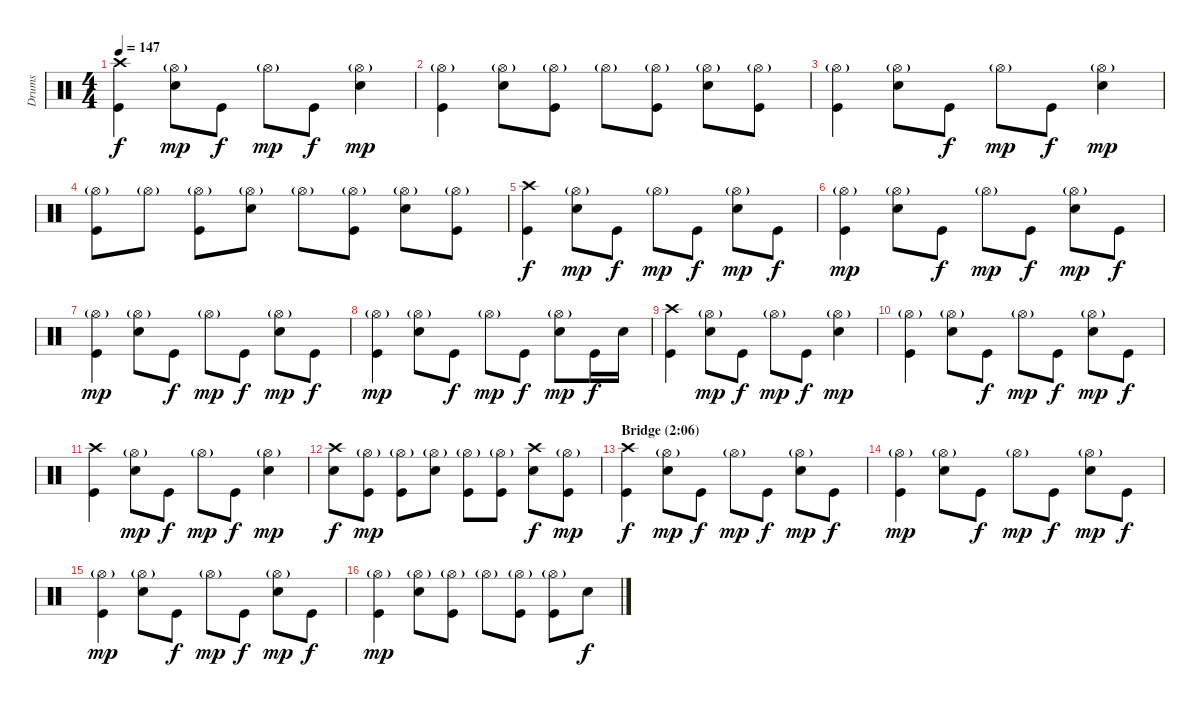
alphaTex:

\track ("Drums" "Drums") {instrument percussion}
\staff {score}
\articulation defaults
\ts (4 4)
\tempo 147
\clef neutral
\ks c
("Crash high (hit)" "Kick (hit)").4{dy f} ("Hi-Hat (open)"{g} "Snare (hit) 2").8{dy mp} "Kick (hit)".8{dy f} "Hi-Hat (open)"{g}.8{dy mp} "Kick (hit)".8{dy f} ("Hi-Hat (open)"{g} "Snare (hit) 2").4{dy mp} |
("Hi-Hat (open)"{g} "Kick (hit)").4 ("Hi-Hat (open)"{g} "Snare (hit) 2").8 ("Hi-Hat (open)"{g} "Kick (hit)").8 "Hi-Hat (open)"{g}.8 ("Hi-Hat (open)"{g} "Kick (hit)").8 ("Hi-Hat (open)"{g} "Snare (hit) 2").8 ("Hi-Hat (open)"{g} "Kick (hit)").8 |
("Hi-Hat (open)"{g} "Kick (hit)").4 ("Hi-Hat (open)"{g} "Snare (hit) 2").8 "Kick (hit)".8{dy f} "Hi-Hat (open)"{g}.8{dy mp} "Kick (hit)".8{dy f} ("Hi-Hat (open)"{g} "Snare (hit) 2").4{dy mp} |
("Hi-Hat (open)"{g} "Kick (hit)").8 "Hi-Hat (open)"{g}.8 ("Hi-Hat (open)"{g} "Kick (hit)").8 ("Hi-Hat (open)"{g} "Snare (hit) 2").8 "Hi-Hat (open)"{g}.8 ("Hi-Hat (open)"{g} "Kick (hit)").8 ("Hi-Hat (open)"{g} "Snare (hit) 2").8 ("Hi-Hat (open)"{g} "Kick (hit)").8 |
("Crash high (hit)" "Kick (hit)").4{dy f} ("Hi-Hat (open)"{g} "Snare (hit) 2").8{dy mp} "Kick (hit)".8{dy f} "Hi-Hat (open)"{g}.8{dy mp} "Kick (hit)".8{dy f} ("Hi-Hat (open)"{g} "Snare (hit) 2").8{dy mp} "Kick (hit)".8{dy f} |
("Hi-Hat (open)"{g} "Kick (hit)").4{dy mp} ("Hi-Hat (open)"{g} "Snare (hit) 2").8 "Kick (hit)".8{dy f} "Hi-Hat (open)"{g}.8{dy mp} "Kick (hit)".8{dy f} ("Hi-Hat (open)"{g} "Snare (hit) 2").8{dy mp} "Kick (hit)".8{dy f} |
("Hi-Hat (open)"{g} "Kick (hit)").4{dy mp} ("Hi-Hat (open)"{g} "Snare (hit) 2").8 "Kick (hit)".8{dy f} "Hi-Hat (open)"{g}.8{dy mp} "Kick (hit)".8{dy f} ("Hi-Hat (open)"{g} "Snare (hit) 2").8{dy mp} "Kick (hit)".8{dy f} |
("Hi-Hat (open)"{g} "Kick (hit)").4{dy mp} ("Hi-Hat (open)"{g} "Snare (hit) 2").8 "Kick (hit)".8{dy f} "Hi-Hat (open)"{g}.8{dy mp} "Kick (hit)".8{dy f} ("Hi-Hat (open)"{g} "Snare (hit) 2").8{dy mp} "Kick (hit)".16{dy f} "Snare (hit) 2".16 |
("Crash high (hit)" "Kick (hit)").4 ("Hi-Hat (open)"{g} "Snare (hit) 2").8{dy mp} "Kick (hit)".8{dy f} "Hi-Hat (open)"{g}.8{dy mp} "Kick (hit)".8{dy f} ("Hi-Hat (open)"{g} "Snare (hit) 2").4{dy mp} |
("Hi-Hat (open)"{g} "Kick (hit)").4 ("Hi-Hat (open)"{g} "Snare (hit) 2").8 "Kick (hit)".8{dy f} "Hi-Hat (open)"{g}.8{dy mp} "Kick (hit)".8{dy f} ("Hi-Hat (open)"{g} "Snare (hit) 2").8{dy mp} "Kick (hit)".8{dy f} |
("Crash high (hit)" "Kick (hit)").4 ("Hi-Hat (open)"{g} "Snare (hit) 2").8{dy mp} "Kick (hit)".8{dy f} "Hi-Hat (open)"{g}.8{dy mp} "Kick (hit)".8{dy f} ("Hi-Hat (open)"{g} "Snare (hit) 2").4{dy mp} |
("Crash high (hit)" "Snare (hit) 2").8{dy f} ("Hi-Hat (open)"{g} "Kick (hit)").8{dy mp} ("Hi-Hat (open)"{g} "Kick (hit)").8 ("Hi-Hat (open)"{g} "Snare (hit) 2").8 ("Hi-Hat (open)"{g} "Kick (hit)").8 ("Hi-Hat (open)"{g} "Kick (hit)").8 ("Crash high (hit)" "Snare (hit) 2").8{dy f} ("Hi-Hat (open)"{g} "Kick (hit)").8{dy mp} |
\section ("" "Bridge (2:06)")
("Crash high (hit)" "Kick (hit)").4{dy f} ("Hi-Hat (open)"{g} "Snare (hit) 2").8{dy mp} "Kick (hit)".8{dy f} "Hi-Hat (open)"{g}.8{dy mp} "Kick (hit)".8{dy f} ("Hi-Hat (open)"{g} "Snare (hit) 2").8{dy mp} "Kick (hit)".8{dy f} |
("Hi-Hat (open)"{g} "Kick (hit)").4{dy mp} ("Hi-Hat (open)"{g} "Snare (hit) 2").8 "Kick (hit)".8{dy f} "Hi-Hat (open)"{g}.8{dy mp} "Kick (hit)".8{dy f} ("Hi-Hat (open)"{g} "Snare (hit) 2").8{dy mp} "Kick (hit)".8{dy f} |
("Hi-Hat (open)"{g} "Kick (hit)").4{dy mp} ("Hi-Hat (open)"{g} "Snare (hit) 2").8 "Kick (hit)".8{dy f} "Hi-Hat (open)"{g}.8{dy mp} "Kick (hit)".8{dy f} ("Hi-Hat (open)"{g} "Snare (hit) 2").8{dy mp} "Kick (hit)".8{dy f} |
("Hi-Hat (open)"{g} "Kick (hit)").4{dy mp} ("Hi-Hat (open)"{g} "Snare (hit) 2").8 ("Hi-Hat (open)"{g} "Kick (hit)").8 "Hi-Hat (open)"{g}.8 ("Hi-Hat (open)"{g} "Kick (hit)").8 ("Hi-Hat (open)"{g} "Kick (hit)").8 "Snare (hit) 2".8{dy f}
